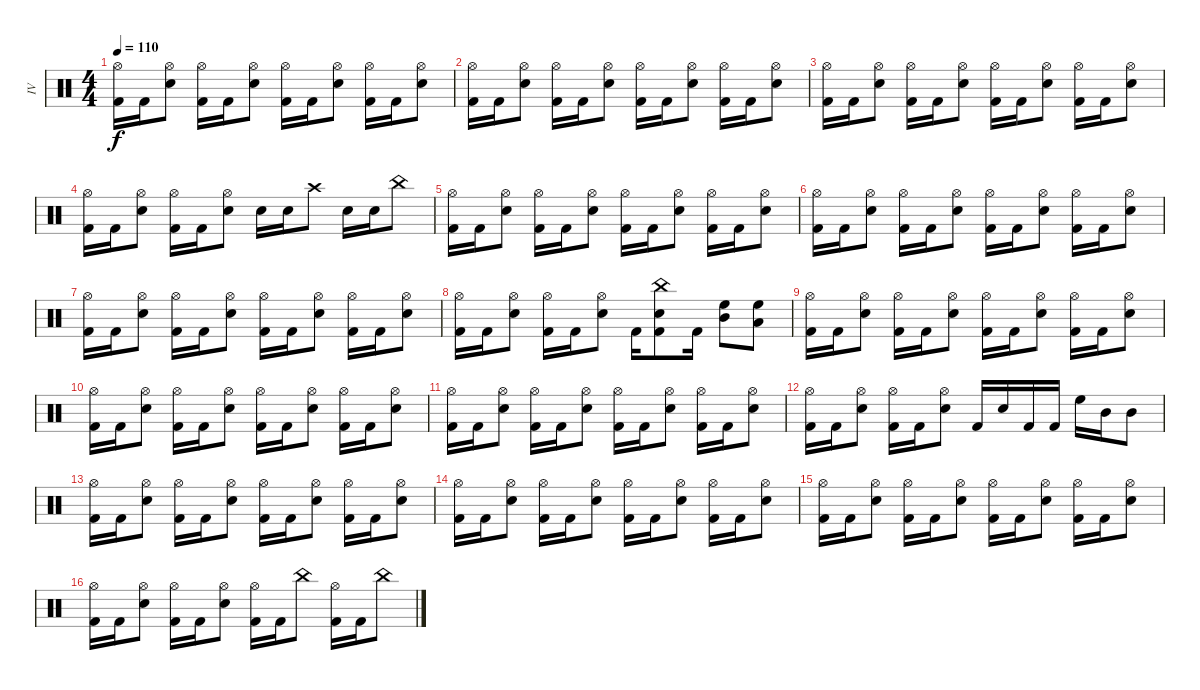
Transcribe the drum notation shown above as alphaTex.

\track ("IV" "IV") {instrument percussion}
\staff {score}
\articulation defaults
\ts (4 4)
\tempo 110
\clef neutral
\ks c
("Hi-Hat (open)" "Kick (hit) 2").16{dy f} "Kick (hit) 2".16 ("Hi-Hat (open)" "Snare (hit) 2").8 ("Hi-Hat (open)" "Kick (hit) 2").16 "Kick (hit) 2".16 ("Hi-Hat (open)" "Snare (hit) 2").8 ("Hi-Hat (open)" "Kick (hit) 2").16 "Kick (hit) 2".16 ("Hi-Hat (open)" "Snare (hit) 2").8 ("Hi-Hat (open)" "Kick (hit) 2").16 "Kick (hit) 2".16 ("Hi-Hat (open)" "Snare (hit) 2").8 |
("Hi-Hat (open)" "Kick (hit) 2").16 "Kick (hit) 2".16 ("Hi-Hat (open)" "Snare (hit) 2").8 ("Hi-Hat (open)" "Kick (hit) 2").16 "Kick (hit) 2".16 ("Hi-Hat (open)" "Snare (hit) 2").8 ("Hi-Hat (open)" "Kick (hit) 2").16 "Kick (hit) 2".16 ("Hi-Hat (open)" "Snare (hit) 2").8 ("Hi-Hat (open)" "Kick (hit) 2").16 "Kick (hit) 2".16 ("Hi-Hat (open)" "Snare (hit) 2").8 |
("Hi-Hat (open)" "Kick (hit) 2").16 "Kick (hit) 2".16 ("Hi-Hat (open)" "Snare (hit) 2").8 ("Hi-Hat (open)" "Kick (hit) 2").16 "Kick (hit) 2".16 ("Hi-Hat (open)" "Snare (hit) 2").8 ("Hi-Hat (open)" "Kick (hit) 2").16 "Kick (hit) 2".16 ("Hi-Hat (open)" "Snare (hit) 2").8 ("Hi-Hat (open)" "Kick (hit) 2").16 "Kick (hit) 2".16 ("Hi-Hat (open)" "Snare (hit) 2").8 |
("Hi-Hat (open)" "Kick (hit) 2").16 "Kick (hit) 2".16 ("Hi-Hat (open)" "Snare (hit) 2").8 ("Hi-Hat (open)" "Kick (hit) 2").16 "Kick (hit) 2".16 ("Hi-Hat (open)" "Snare (hit) 2").8 "Snare (hit) 2".16 "Snare (hit) 2".16 "Crash high (hit)".8 "Snare (hit) 2".16 "Snare (hit) 2".16 "China (hit)".8 |
("Hi-Hat (open)" "Kick (hit) 2").16 "Kick (hit) 2".16 ("Hi-Hat (open)" "Snare (hit) 2").8 ("Hi-Hat (open)" "Kick (hit) 2").16 "Kick (hit) 2".16 ("Hi-Hat (open)" "Snare (hit) 2").8 ("Hi-Hat (open)" "Kick (hit) 2").16 "Kick (hit) 2".16 ("Hi-Hat (open)" "Snare (hit) 2").8 ("Hi-Hat (open)" "Kick (hit) 2").16 "Kick (hit) 2".16 ("Hi-Hat (open)" "Snare (hit) 2").8 |
("Hi-Hat (open)" "Kick (hit) 2").16 "Kick (hit) 2".16 ("Hi-Hat (open)" "Snare (hit) 2").8 ("Hi-Hat (open)" "Kick (hit) 2").16 "Kick (hit) 2".16 ("Hi-Hat (open)" "Snare (hit) 2").8 ("Hi-Hat (open)" "Kick (hit) 2").16 "Kick (hit) 2".16 ("Hi-Hat (open)" "Snare (hit) 2").8 ("Hi-Hat (open)" "Kick (hit) 2").16 "Kick (hit) 2".16 ("Hi-Hat (open)" "Snare (hit) 2").8 |
("Hi-Hat (open)" "Kick (hit) 2").16 "Kick (hit) 2".16 ("Hi-Hat (open)" "Snare (hit) 2").8 ("Hi-Hat (open)" "Kick (hit) 2").16 "Kick (hit) 2".16 ("Hi-Hat (open)" "Snare (hit) 2").8 ("Hi-Hat (open)" "Kick (hit) 2").16 "Kick (hit) 2".16 ("Hi-Hat (open)" "Snare (hit) 2").8 ("Hi-Hat (open)" "Kick (hit) 2").16 "Kick (hit) 2".16 ("Hi-Hat (open)" "Snare (hit) 2").8 |
("Hi-Hat (open)" "Kick (hit) 2").16 "Kick (hit) 2".16 ("Hi-Hat (open)" "Snare (hit) 2").8 ("Hi-Hat (open)" "Kick (hit) 2").16 "Kick (hit) 2".16 ("Hi-Hat (open)" "Snare (hit) 2").8 "Kick (hit) 2".16 ("China (hit)" "Snare (hit) 2" "Kick (hit) 2").8 "Kick (hit) 2".16 ("High Floor Tom (hit)" "Mid Tom (hit)").8 ("High Floor Tom (hit)" "Low Tom (hit)").8 |
("Hi-Hat (open)" "Kick (hit) 2").16 "Kick (hit) 2".16 ("Hi-Hat (open)" "Snare (hit) 2").8 ("Hi-Hat (open)" "Kick (hit) 2").16 "Kick (hit) 2".16 ("Hi-Hat (open)" "Snare (hit) 2").8 ("Hi-Hat (open)" "Kick (hit) 2").16 "Kick (hit) 2".16 ("Hi-Hat (open)" "Snare (hit) 2").8 ("Hi-Hat (open)" "Kick (hit) 2").16 "Kick (hit) 2".16 ("Hi-Hat (open)" "Snare (hit) 2").8 |
("Hi-Hat (open)" "Kick (hit) 2").16 "Kick (hit) 2".16 ("Hi-Hat (open)" "Snare (hit) 2").8 ("Hi-Hat (open)" "Kick (hit) 2").16 "Kick (hit) 2".16 ("Hi-Hat (open)" "Snare (hit) 2").8 ("Hi-Hat (open)" "Kick (hit) 2").16 "Kick (hit) 2".16 ("Hi-Hat (open)" "Snare (hit) 2").8 ("Hi-Hat (open)" "Kick (hit) 2").16 "Kick (hit) 2".16 ("Hi-Hat (open)" "Snare (hit) 2").8 |
("Hi-Hat (open)" "Kick (hit) 2").16 "Kick (hit) 2".16 ("Hi-Hat (open)" "Snare (hit) 2").8 ("Hi-Hat (open)" "Kick (hit) 2").16 "Kick (hit) 2".16 ("Hi-Hat (open)" "Snare (hit) 2").8 ("Hi-Hat (open)" "Kick (hit) 2").16 "Kick (hit) 2".16 ("Hi-Hat (open)" "Snare (hit) 2").8 ("Hi-Hat (open)" "Kick (hit) 2").16 "Kick (hit) 2".16 ("Hi-Hat (open)" "Snare (hit) 2").8 |
("Hi-Hat (open)" "Kick (hit) 2").16 "Kick (hit) 2".16 ("Hi-Hat (open)" "Snare (hit) 2").8 ("Hi-Hat (open)" "Kick (hit) 2").16 "Kick (hit) 2".16 ("Hi-Hat (open)" "Snare (hit) 2").8 "Kick (hit) 2".16 "Snare (hit) 2".16 "Kick (hit) 2".16 "Kick (hit) 2".16 "High Floor Tom (hit)".16 "Mid Tom (hit)".16 "Mid Tom (hit)".8 |
("Hi-Hat (open)" "Kick (hit) 2").16 "Kick (hit) 2".16 ("Hi-Hat (open)" "Snare (hit) 2").8 ("Hi-Hat (open)" "Kick (hit) 2").16 "Kick (hit) 2".16 ("Hi-Hat (open)" "Snare (hit) 2").8 ("Hi-Hat (open)" "Kick (hit) 2").16 "Kick (hit) 2".16 ("Hi-Hat (open)" "Snare (hit) 2").8 ("Hi-Hat (open)" "Kick (hit) 2").16 "Kick (hit) 2".16 ("Hi-Hat (open)" "Snare (hit) 2").8 |
("Hi-Hat (open)" "Kick (hit) 2").16 "Kick (hit) 2".16 ("Hi-Hat (open)" "Snare (hit) 2").8 ("Hi-Hat (open)" "Kick (hit) 2").16 "Kick (hit) 2".16 ("Hi-Hat (open)" "Snare (hit) 2").8 ("Hi-Hat (open)" "Kick (hit) 2").16 "Kick (hit) 2".16 ("Hi-Hat (open)" "Snare (hit) 2").8 ("Hi-Hat (open)" "Kick (hit) 2").16 "Kick (hit) 2".16 ("Hi-Hat (open)" "Snare (hit) 2").8 |
("Hi-Hat (open)" "Kick (hit) 2").16 "Kick (hit) 2".16 ("Hi-Hat (open)" "Snare (hit) 2").8 ("Hi-Hat (open)" "Kick (hit) 2").16 "Kick (hit) 2".16 ("Hi-Hat (open)" "Snare (hit) 2").8 ("Hi-Hat (open)" "Kick (hit) 2").16 "Kick (hit) 2".16 ("Hi-Hat (open)" "Snare (hit) 2").8 ("Hi-Hat (open)" "Kick (hit) 2").16 "Kick (hit) 2".16 ("Hi-Hat (open)" "Snare (hit) 2").8 |
("Hi-Hat (open)" "Kick (hit) 2").16 "Kick (hit) 2".16 ("Hi-Hat (open)" "Snare (hit) 2").8 ("Hi-Hat (open)" "Kick (hit) 2").16 "Kick (hit) 2".16 ("Hi-Hat (open)" "Snare (hit) 2").8 ("Hi-Hat (open)" "Kick (hit) 2").16 "Kick (hit) 2".16 "China (hit)".8 ("Hi-Hat (open)" "Kick (hit) 2").16 "Kick (hit) 2".16 "China (hit)".8
